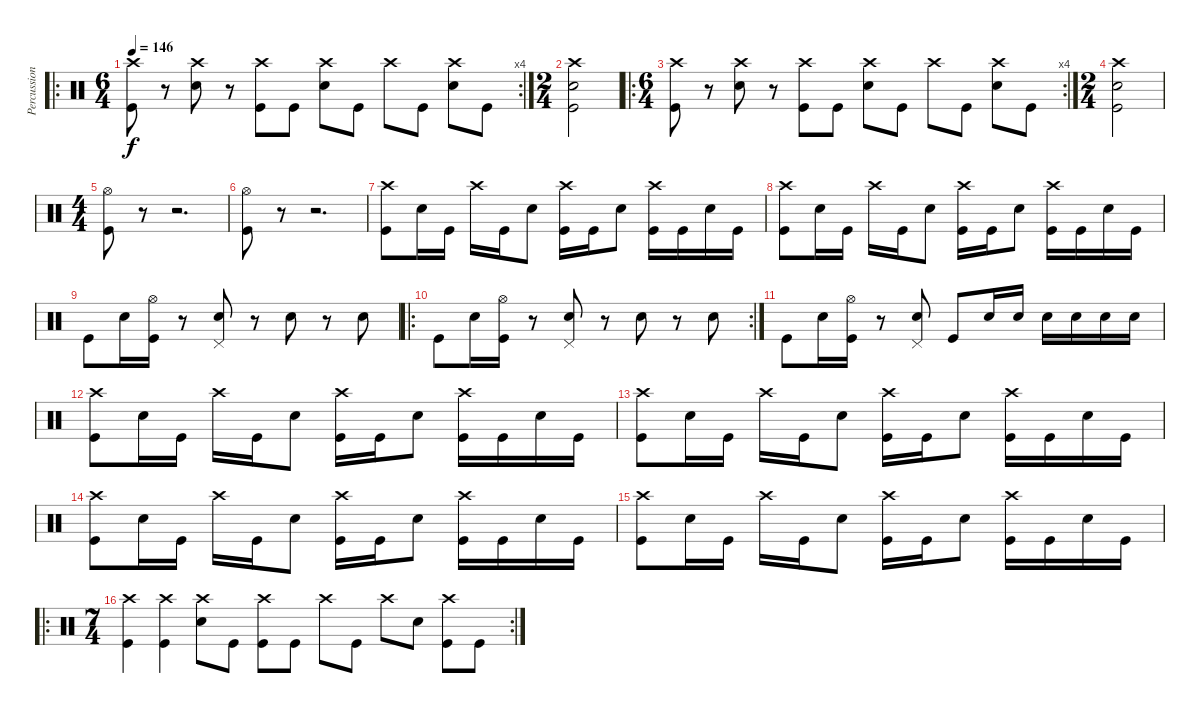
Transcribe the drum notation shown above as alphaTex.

\track ("Percussion" "Percussion") {instrument percussion}
\staff {score}
\articulation defaults
\ro
\rc 4
\ts (6 4)
\tempo 146
\clef neutral
\ks c
("Crash high (hit)" "Kick (hit)").8{dy f} r.8 ("Crash high (hit)" "Snare (hit) 2").8 r.8 ("Crash high (hit)" "Kick (hit)").8 "Kick (hit)".8 ("Crash high (hit)" "Snare (hit) 2").8 "Kick (hit)".8 "Crash high (hit)".8 "Kick (hit)".8 ("Crash high (hit)" "Snare (hit) 2").8 "Kick (hit)".8 |
\ts (2 4)
("Crash high (hit)" "Snare (hit) 2" "Kick (hit)").2 |
\ro
\rc 4
\ts (6 4)
("Crash high (hit)" "Kick (hit)").8 r.8 ("Crash high (hit)" "Snare (hit) 2").8 r.8 ("Crash high (hit)" "Kick (hit)").8 "Kick (hit)".8 ("Crash high (hit)" "Snare (hit) 2").8 "Kick (hit)".8 "Crash high (hit)".8 "Kick (hit)".8 ("Crash high (hit)" "Snare (hit) 2").8 "Kick (hit)".8 |
\ts (2 4)
("Crash high (hit)" "Snare (hit) 2" "Kick (hit)").2 |
\ts (4 4)
("Hi-Hat (open)" "Kick (hit)").8{volume 13} r.8{volume 0} r.2{d} |
("Hi-Hat (open)" "Kick (hit)").8{volume 13} r.8{volume 0} r.2{d} |
("Crash high (hit)" "Kick (hit)").8{volume 13} "Snare (hit) 2".16 "Kick (hit)".16 "Crash high (hit)".16 "Kick (hit)".16 "Snare (hit) 2".8 ("Crash high (hit)" "Kick (hit)").16 "Kick (hit)".16 "Snare (hit) 2".8 ("Crash high (hit)" "Kick (hit)").16 "Kick (hit)".16 "Snare (hit) 2".16 "Kick (hit)".16 |
("Crash high (hit)" "Kick (hit)").8{volume 13} "Snare (hit) 2".16 "Kick (hit)".16 "Crash high (hit)".16 "Kick (hit)".16 "Snare (hit) 2".8 ("Crash high (hit)" "Kick (hit)").16 "Kick (hit)".16 "Snare (hit) 2".8 ("Crash high (hit)" "Kick (hit)").16 "Kick (hit)".16 "Snare (hit) 2".16 "Kick (hit)".16 |
"Kick (hit)".8{volume 13} "Snare (hit) 2".16 ("Hi-Hat (open)" "Kick (hit)").16 r.8 ("Pedal Hi-Hat (hit)" "Snare (hit) 2").8 r.8 "Snare (hit) 2".8 r.8 "Snare (hit) 2".8 |
\ro
\rc 2 "Kick (hit)".8{volume 13} "Snare (hit) 2".16
("Hi-Hat (open)" "Kick (hit)").16 r.8 ("Pedal Hi-Hat (hit)" "Snare (hit) 2").8 r.8 "Snare (hit) 2".8 r.8 "Snare (hit) 2".8 |
"Kick (hit)".8{volume 13} "Snare (hit) 2".16 ("Hi-Hat (open)" "Kick (hit)").16 r.8 ("Pedal Hi-Hat (hit)" "Snare (hit) 2").8 "Kick (hit)".8 "Snare (hit) 2".16 "Snare (hit) 2".16 "Snare (hit) 2".16 "Snare (hit) 2".16 "Snare (hit) 2".16 "Snare (hit) 2".16 |
("Crash high (hit)" "Kick (hit)").8{volume 13} "Snare (hit) 2".16 "Kick (hit)".16 "Crash high (hit)".16 "Kick (hit)".16 "Snare (hit) 2".8 ("Crash high (hit)" "Kick (hit)").16 "Kick (hit)".16 "Snare (hit) 2".8 ("Crash high (hit)" "Kick (hit)").16 "Kick (hit)".16 "Snare (hit) 2".16 "Kick (hit)".16 |
("Crash high (hit)" "Kick (hit)").8{volume 13} "Snare (hit) 2".16 "Kick (hit)".16 "Crash high (hit)".16 "Kick (hit)".16 "Snare (hit) 2".8 ("Crash high (hit)" "Kick (hit)").16 "Kick (hit)".16 "Snare (hit) 2".8 ("Crash high (hit)" "Kick (hit)").16 "Kick (hit)".16 "Snare (hit) 2".16 "Kick (hit)".16 |
("Crash high (hit)" "Kick (hit)").8{volume 13} "Snare (hit) 2".16 "Kick (hit)".16 "Crash high (hit)".16 "Kick (hit)".16 "Snare (hit) 2".8 ("Crash high (hit)" "Kick (hit)").16 "Kick (hit)".16 "Snare (hit) 2".8 ("Crash high (hit)" "Kick (hit)").16 "Kick (hit)".16 "Snare (hit) 2".16 "Kick (hit)".16 |
("Crash high (hit)" "Kick (hit)").8{volume 13} "Snare (hit) 2".16 "Kick (hit)".16 "Crash high (hit)".16 "Kick (hit)".16 "Snare (hit) 2".8 ("Crash high (hit)" "Kick (hit)").16 "Kick (hit)".16 "Snare (hit) 2".8 ("Crash high (hit)" "Kick (hit)").16 "Kick (hit)".16 "Snare (hit) 2".16 "Kick (hit)".16 |
\ro
\rc 2
\ts (7 4)
("Crash high (hit)" "Kick (hit)").4 ("Crash high (hit)" "Kick (hit)").4 ("Crash high (hit)" "Snare (hit) 2").8 "Kick (hit)".8 ("Crash high (hit)" "Kick (hit)").8 "Kick (hit)".8 "Crash high (hit)".8 "Kick (hit)".8 "Crash high (hit)".8 "Snare (hit) 2".8 ("Crash high (hit)" "Kick (hit)").8 "Kick (hit)".8
